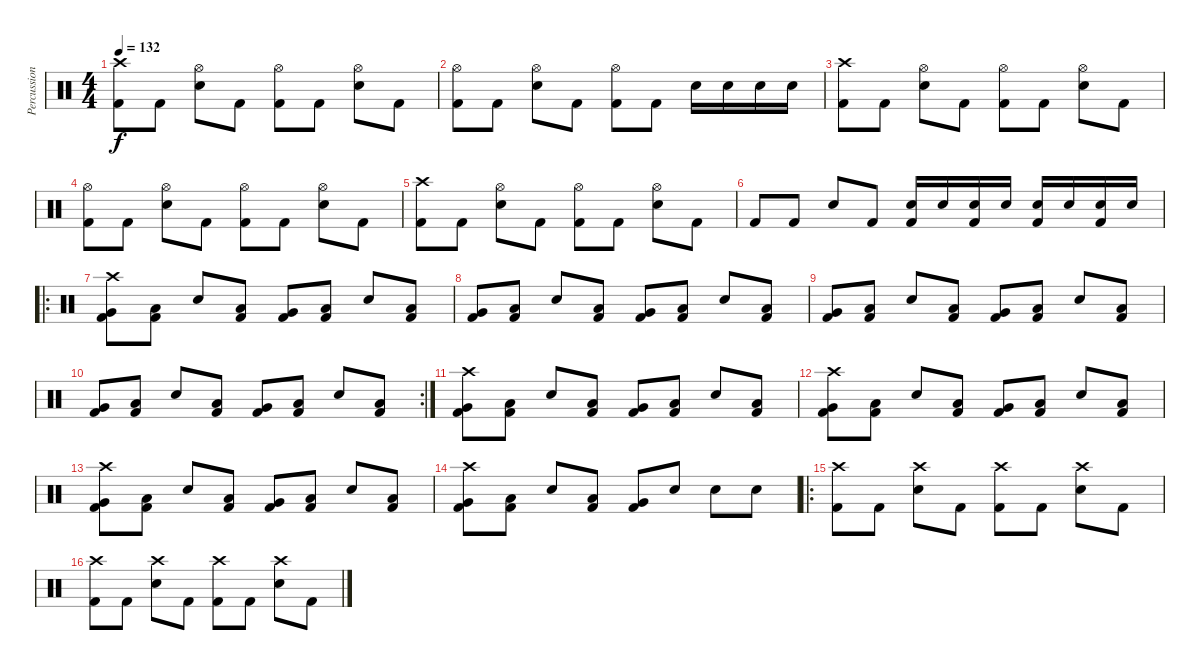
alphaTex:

\track ("Percussion" "Percussion") {instrument percussion}
\staff {score}
\articulation defaults
\ts (4 4)
\tempo 132
\clef neutral
\ks c
("Crash high (hit)" "Kick (hit) 2").8{dy f} "Kick (hit) 2".8 ("Hi-Hat (open)" "Electric Snare (hit)").8 "Kick (hit) 2".8 ("Hi-Hat (open)" "Kick (hit) 2").8 "Kick (hit) 2".8 ("Hi-Hat (open)" "Electric Snare (hit)").8 "Kick (hit) 2".8 |
("Hi-Hat (open)" "Kick (hit) 2").8 "Kick (hit) 2".8 ("Hi-Hat (open)" "Electric Snare (hit)").8 "Kick (hit) 2".8 ("Hi-Hat (open)" "Kick (hit) 2").8 "Kick (hit) 2".8 "Electric Snare (hit)".16 "Electric Snare (hit)".16 "Electric Snare (hit)".16 "Electric Snare (hit)".16 |
("Crash high (hit)" "Kick (hit) 2").8 "Kick (hit) 2".8 ("Hi-Hat (open)" "Electric Snare (hit)").8 "Kick (hit) 2".8 ("Hi-Hat (open)" "Kick (hit) 2").8 "Kick (hit) 2".8 ("Hi-Hat (open)" "Electric Snare (hit)").8 "Kick (hit) 2".8 |
("Hi-Hat (open)" "Kick (hit) 2").8 "Kick (hit) 2".8 ("Hi-Hat (open)" "Electric Snare (hit)").8 "Kick (hit) 2".8 ("Hi-Hat (open)" "Kick (hit) 2").8 "Kick (hit) 2".8 ("Hi-Hat (open)" "Electric Snare (hit)").8 "Kick (hit) 2".8 |
("Crash high (hit)" "Kick (hit) 2").8 "Kick (hit) 2".8 ("Hi-Hat (open)" "Electric Snare (hit)").8 "Kick (hit) 2".8 ("Hi-Hat (open)" "Kick (hit) 2").8 "Kick (hit) 2".8 ("Hi-Hat (open)" "Electric Snare (hit)").8 "Kick (hit) 2".8 |
"Kick (hit) 2".8 "Kick (hit) 2".8 "Electric Snare (hit)".8 "Kick (hit) 2".8 ("Electric Snare (hit)" "Kick (hit) 2").16 "Electric Snare (hit)".16 ("Electric Snare (hit)" "Kick (hit) 2").16 "Electric Snare (hit)".16 ("Electric Snare (hit)" "Kick (hit) 2").16 "Electric Snare (hit)".16 ("Electric Snare (hit)" "Kick (hit) 2").16 "Electric Snare (hit)".16 |
\ro
("Crash high (hit)" "Very Low Tom (hit)" "Kick (hit) 2").8 ("Low Floor Tom (hit)" "Kick (hit) 2").8 "Electric Snare (hit)".8 ("Low Floor Tom (hit)" "Kick (hit) 2").8 ("Very Low Tom (hit)" "Kick (hit) 2").8 ("Low Floor Tom (hit)" "Kick (hit) 2").8 "Electric Snare (hit)".8 ("Low Floor Tom (hit)" "Kick (hit) 2").8 |
("Very Low Tom (hit)" "Kick (hit) 2").8 ("Low Floor Tom (hit)" "Kick (hit) 2").8 "Electric Snare (hit)".8 ("Low Floor Tom (hit)" "Kick (hit) 2").8 ("Very Low Tom (hit)" "Kick (hit) 2").8 ("Low Floor Tom (hit)" "Kick (hit) 2").8 "Electric Snare (hit)".8 ("Low Floor Tom (hit)" "Kick (hit) 2").8 |
("Very Low Tom (hit)" "Kick (hit) 2").8 ("Low Floor Tom (hit)" "Kick (hit) 2").8 "Electric Snare (hit)".8 ("Low Floor Tom (hit)" "Kick (hit) 2").8 ("Very Low Tom (hit)" "Kick (hit) 2").8 ("Low Floor Tom (hit)" "Kick (hit) 2").8 "Electric Snare (hit)".8 ("Low Floor Tom (hit)" "Kick (hit) 2").8 |
\rc 2
("Very Low Tom (hit)" "Kick (hit) 2").8 ("Low Floor Tom (hit)" "Kick (hit) 2").8 "Electric Snare (hit)".8 ("Low Floor Tom (hit)" "Kick (hit) 2").8 ("Very Low Tom (hit)" "Kick (hit) 2").8 ("Low Floor Tom (hit)" "Kick (hit) 2").8 "Electric Snare (hit)".8 ("Low Floor Tom (hit)" "Kick (hit) 2").8 |
("Crash high (hit)" "Very Low Tom (hit)" "Kick (hit) 2").8 ("Low Floor Tom (hit)" "Kick (hit) 2").8 "Electric Snare (hit)".8 ("Low Floor Tom (hit)" "Kick (hit) 2").8 ("Very Low Tom (hit)" "Kick (hit) 2").8 ("Low Floor Tom (hit)" "Kick (hit) 2").8 "Electric Snare (hit)".8 ("Low Floor Tom (hit)" "Kick (hit) 2").8 |
("Crash high (hit)" "Very Low Tom (hit)" "Kick (hit) 2").8 ("Low Floor Tom (hit)" "Kick (hit) 2").8 "Electric Snare (hit)".8 ("Low Floor Tom (hit)" "Kick (hit) 2").8 ("Very Low Tom (hit)" "Kick (hit) 2").8 ("Low Floor Tom (hit)" "Kick (hit) 2").8 "Electric Snare (hit)".8 ("Low Floor Tom (hit)" "Kick (hit) 2").8 |
("Crash high (hit)" "Very Low Tom (hit)" "Kick (hit) 2").8 ("Low Floor Tom (hit)" "Kick (hit) 2").8 "Electric Snare (hit)".8 ("Low Floor Tom (hit)" "Kick (hit) 2").8 ("Very Low Tom (hit)" "Kick (hit) 2").8 ("Low Floor Tom (hit)" "Kick (hit) 2").8 "Electric Snare (hit)".8 ("Low Floor Tom (hit)" "Kick (hit) 2").8 |
("Crash high (hit)" "Very Low Tom (hit)" "Kick (hit) 2").8 ("Low Floor Tom (hit)" "Kick (hit) 2").8 "Electric Snare (hit)".8 ("Low Floor Tom (hit)" "Kick (hit) 2").8 ("Very Low Tom (hit)" "Kick (hit) 2").8 "Electric Snare (hit)".8 "Electric Snare (hit)".8 "Electric Snare (hit)".8 |
\ro
("Crash high (hit)" "Kick (hit) 2").8 "Kick (hit) 2".8 ("Crash high (hit)" "Electric Snare (hit)").8 "Kick (hit) 2".8 ("Crash high (hit)" "Kick (hit) 2").8 "Kick (hit) 2".8 ("Crash high (hit)" "Electric Snare (hit)").8 "Kick (hit) 2".8 |
("Crash high (hit)" "Kick (hit) 2").8 "Kick (hit) 2".8 ("Crash high (hit)" "Electric Snare (hit)").8 "Kick (hit) 2".8 ("Crash high (hit)" "Kick (hit) 2").8 "Kick (hit) 2".8 ("Crash high (hit)" "Electric Snare (hit)").8 "Kick (hit) 2".8
